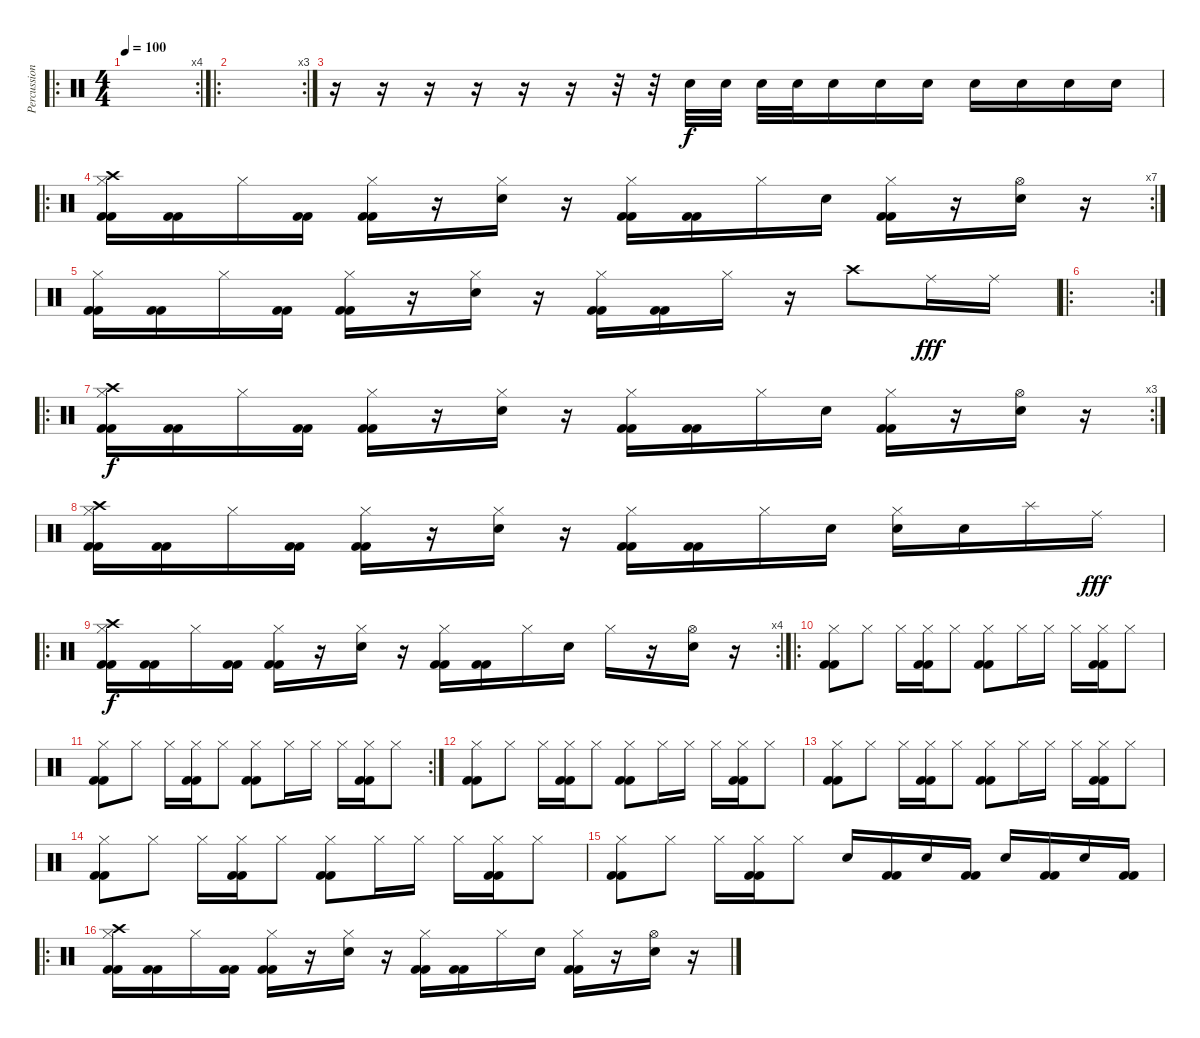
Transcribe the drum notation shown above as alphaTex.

\track ("Percussion" "Percussion") {instrument percussion}
\staff {score}
\articulation defaults
\ro
\rc 4
\ts (4 4)
\tempo 100
\clef neutral
\ks c
|
\ro
\rc 3
|
r.16 r.16 r.16 r.16 r.16 r.16 r.32 r.32 "Snare (hit) 2".32 "Snare (hit) 2".32 "Snare (hit) 2".32 "Snare (hit) 2".32 "Snare (hit) 2".16 "Snare (hit) 2".16 "Snare (hit) 2".16 "Snare (hit) 2".16 "Snare (hit) 2".16 "Snare (hit) 2".16 "Snare (hit) 2".16 |
\ro
\rc 7
("Hi-Hat (closed)" "Crash high (hit)" "Kick (hit) 2" "Kick (hit) 2").16 ("Kick (hit) 2" "Kick (hit) 2").16 "Hi-Hat (closed)".16 ("Kick (hit) 2" "Kick (hit) 2").16 ("Hi-Hat (closed)" "Kick (hit) 2" "Kick (hit) 2").16 r.16 ("Hi-Hat (closed)" "Snare (hit) 2").16 r.16 ("Hi-Hat (closed)" "Kick (hit) 2" "Kick (hit) 2").16 ("Kick (hit) 2" "Kick (hit) 2").16 "Hi-Hat (closed)".16 "Snare (hit) 2".16 ("Hi-Hat (closed)" "Kick (hit) 2" "Kick (hit) 2").16 r.16 ("Hi-Hat (open)" "Snare (hit) 2").16 r.16 |
("Hi-Hat (closed)" "Kick (hit) 2" "Kick (hit) 2").16 ("Kick (hit) 2" "Kick (hit) 2").16 "Hi-Hat (closed)".16 ("Kick (hit) 2" "Kick (hit) 2").16 ("Hi-Hat (closed)" "Kick (hit) 2" "Kick (hit) 2").16 r.16 ("Hi-Hat (closed)" "Snare (hit) 2").16 r.16 ("Hi-Hat (closed)" "Kick (hit) 2" "Kick (hit) 2").16 ("Kick (hit) 2" "Kick (hit) 2").16 "Hi-Hat (closed)".16 r.16 "Crash high (hit)".8 "Ride (middle)".16{dy fff} "Ride (middle)".16 |
\ro
\rc 2
|
\ro
\rc 3
("Hi-Hat (closed)" "Crash high (hit)" "Kick (hit) 2" "Kick (hit) 2").16{dy f} ("Kick (hit) 2" "Kick (hit) 2").16 "Hi-Hat (closed)".16 ("Kick (hit) 2" "Kick (hit) 2").16 ("Hi-Hat (closed)" "Kick (hit) 2" "Kick (hit) 2").16 r.16 ("Hi-Hat (closed)" "Snare (hit) 2").16 r.16 ("Hi-Hat (closed)" "Kick (hit) 2" "Kick (hit) 2").16 ("Kick (hit) 2" "Kick (hit) 2").16 "Hi-Hat (closed)".16 "Snare (hit) 2".16 ("Hi-Hat (closed)" "Kick (hit) 2" "Kick (hit) 2").16 r.16 ("Hi-Hat (open)" "Snare (hit) 2").16 r.16 |
("Hi-Hat (closed)" "Crash high (hit)" "Kick (hit) 2" "Kick (hit) 2").16 ("Kick (hit) 2" "Kick (hit) 2").16 "Hi-Hat (closed)".16 ("Kick (hit) 2" "Kick (hit) 2").16 ("Hi-Hat (closed)" "Kick (hit) 2" "Kick (hit) 2").16 r.16 ("Hi-Hat (closed)" "Snare (hit) 2").16 r.16 ("Hi-Hat (closed)" "Kick (hit) 2" "Kick (hit) 2").16 ("Kick (hit) 2" "Kick (hit) 2").16 "Hi-Hat (closed)".16 "Snare (hit) 2".16 ("Hi-Hat (closed)" "Snare (hit) 2").16 "Snare (hit) 2".16 "Splash (hit)".16 "Ride (middle)".16{dy fff} |
\ro
\rc 4
("Hi-Hat (closed)" "Crash high (hit)" "Kick (hit) 2" "Kick (hit) 2").16{dy f} ("Kick (hit) 2" "Kick (hit) 2").16 "Hi-Hat (closed)".16 ("Kick (hit) 2" "Kick (hit) 2").16 ("Hi-Hat (closed)" "Kick (hit) 2" "Kick (hit) 2").16 r.16 ("Hi-Hat (closed)" "Snare (hit) 2").16 r.16 ("Hi-Hat (closed)" "Kick (hit) 2" "Kick (hit) 2").16 ("Kick (hit) 2" "Kick (hit) 2").16 "Hi-Hat (closed)".16 "Snare (hit) 2".16 "Hi-Hat (closed)".16 r.16 ("Hi-Hat (open)" "Snare (hit) 2").16 r.16 |
\ro
("Hi-Hat (closed)" "Kick (hit) 2" "Kick (hit) 2").8 "Hi-Hat (closed)".8 "Hi-Hat (closed)".16 ("Hi-Hat (closed)" "Kick (hit) 2" "Kick (hit) 2").16 "Hi-Hat (closed)".8 ("Hi-Hat (closed)" "Kick (hit) 2" "Kick (hit) 2").8 "Hi-Hat (closed)".16 "Hi-Hat (closed)".16 "Hi-Hat (closed)".16 ("Hi-Hat (closed)" "Kick (hit) 2" "Kick (hit) 2").16 "Hi-Hat (closed)".8 |
\rc 2
("Hi-Hat (closed)" "Kick (hit) 2" "Kick (hit) 2").8 "Hi-Hat (closed)".8 "Hi-Hat (closed)".16 ("Hi-Hat (closed)" "Kick (hit) 2" "Kick (hit) 2").16 "Hi-Hat (closed)".8 ("Hi-Hat (closed)" "Kick (hit) 2" "Kick (hit) 2").8 "Hi-Hat (closed)".16 "Hi-Hat (closed)".16 "Hi-Hat (closed)".16 ("Hi-Hat (closed)" "Kick (hit) 2" "Kick (hit) 2").16 "Hi-Hat (closed)".8 |
("Hi-Hat (closed)" "Kick (hit) 2" "Kick (hit) 2").8 "Hi-Hat (closed)".8 "Hi-Hat (closed)".16 ("Hi-Hat (closed)" "Kick (hit) 2" "Kick (hit) 2").16 "Hi-Hat (closed)".8 ("Hi-Hat (closed)" "Kick (hit) 2" "Kick (hit) 2").8 "Hi-Hat (closed)".16 "Hi-Hat (closed)".16 "Hi-Hat (closed)".16 ("Hi-Hat (closed)" "Kick (hit) 2" "Kick (hit) 2").16 "Hi-Hat (closed)".8 |
("Hi-Hat (closed)" "Kick (hit) 2" "Kick (hit) 2").8 "Hi-Hat (closed)".8 "Hi-Hat (closed)".16 ("Hi-Hat (closed)" "Kick (hit) 2" "Kick (hit) 2").16 "Hi-Hat (closed)".8 ("Hi-Hat (closed)" "Kick (hit) 2" "Kick (hit) 2").8 "Hi-Hat (closed)".16 "Hi-Hat (closed)".16 "Hi-Hat (closed)".16 ("Hi-Hat (closed)" "Kick (hit) 2" "Kick (hit) 2").16 "Hi-Hat (closed)".8 |
("Hi-Hat (closed)" "Kick (hit) 2" "Kick (hit) 2").8 "Hi-Hat (closed)".8 "Hi-Hat (closed)".16 ("Hi-Hat (closed)" "Kick (hit) 2" "Kick (hit) 2").16 "Hi-Hat (closed)".8 ("Hi-Hat (closed)" "Kick (hit) 2" "Kick (hit) 2").8 "Hi-Hat (closed)".16 "Hi-Hat (closed)".16 "Hi-Hat (closed)".16 ("Hi-Hat (closed)" "Kick (hit) 2" "Kick (hit) 2").16 "Hi-Hat (closed)".8 |
("Hi-Hat (closed)" "Kick (hit) 2" "Kick (hit) 2").8 "Hi-Hat (closed)".8 "Hi-Hat (closed)".16 ("Hi-Hat (closed)" "Kick (hit) 2" "Kick (hit) 2").16 "Hi-Hat (closed)".8 "Snare (hit) 2".16 ("Kick (hit) 2" "Kick (hit) 2").16 "Snare (hit) 2".16 ("Kick (hit) 2" "Kick (hit) 2").16 "Snare (hit) 2".16 ("Kick (hit) 2" "Kick (hit) 2").16 "Snare (hit) 2".16 ("Kick (hit) 2" "Kick (hit) 2").16 |
\ro
("Hi-Hat (closed)" "Crash high (hit)" "Kick (hit) 2" "Kick (hit) 2").16 ("Kick (hit) 2" "Kick (hit) 2").16 "Hi-Hat (closed)".16 ("Kick (hit) 2" "Kick (hit) 2").16 ("Hi-Hat (closed)" "Kick (hit) 2" "Kick (hit) 2").16 r.16 ("Hi-Hat (closed)" "Snare (hit) 2").16 r.16 ("Hi-Hat (closed)" "Kick (hit) 2" "Kick (hit) 2").16 ("Kick (hit) 2" "Kick (hit) 2").16 "Hi-Hat (closed)".16 "Snare (hit) 2".16 ("Hi-Hat (closed)" "Kick (hit) 2" "Kick (hit) 2").16 r.16 ("Hi-Hat (open)" "Snare (hit) 2").16 r.16
